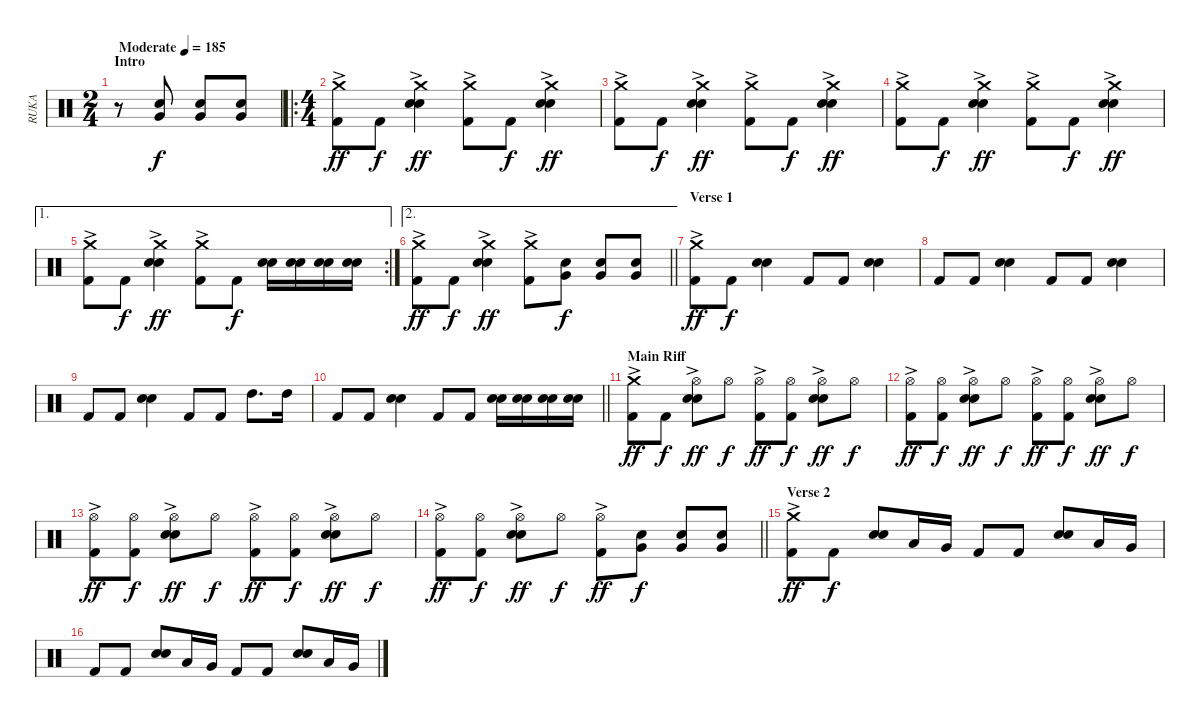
\track ("RUKA" "RUKA") {instrument percussion}
\staff {score}
\articulation defaults
\ts (2 4)
\section ("" "Intro")
\tempo (185 "Moderate")
\clef neutral
\ks c
r.8{dy f} ("Very Low Tom (hit)" "Snare (hit) 2").8 ("Very Low Tom (hit)" "Snare (hit) 2").8 ("Very Low Tom (hit)" "Snare (hit) 2").8 |
\ro
\ts (4 4)
("Crash medium (hit)"{ac} "Kick (hit) 2").8{dy ff} "Kick (hit) 2".8{dy f} ("Crash medium (hit)"{ac} "Snare (hit) 2" "Electric Snare (hit)").4{dy ff} ("Crash medium (hit)"{ac} "Kick (hit) 2").8 "Kick (hit) 2".8{dy f} ("Crash medium (hit)"{ac} "Snare (hit) 2" "Electric Snare (hit)").4{dy ff} |
("Crash medium (hit)"{ac} "Kick (hit) 2").8 "Kick (hit) 2".8{dy f} ("Crash medium (hit)"{ac} "Snare (hit) 2" "Electric Snare (hit)").4{dy ff} ("Crash medium (hit)"{ac} "Kick (hit) 2").8 "Kick (hit) 2".8{dy f} ("Crash medium (hit)"{ac} "Snare (hit) 2" "Electric Snare (hit)").4{dy ff} |
("Crash medium (hit)"{ac} "Kick (hit) 2").8 "Kick (hit) 2".8{dy f} ("Crash medium (hit)"{ac} "Snare (hit) 2" "Electric Snare (hit)").4{dy ff} ("Crash medium (hit)"{ac} "Kick (hit) 2").8 "Kick (hit) 2".8{dy f} ("Crash medium (hit)"{ac} "Snare (hit) 2" "Electric Snare (hit)").4{dy ff} |
\ae 1
\rc 2
("Crash medium (hit)"{ac} "Kick (hit) 2").8 "Kick (hit) 2".8{dy f} ("Crash medium (hit)"{ac} "Snare (hit) 2" "Electric Snare (hit)").4{dy ff} ("Crash medium (hit)"{ac} "Kick (hit) 2").8 "Kick (hit) 2".8{dy f} ("Snare (hit) 2" "Electric Snare (hit)").16 ("Snare (hit) 2" "Electric Snare (hit)").16 ("Snare (hit) 2" "Electric Snare (hit)").16 ("Snare (hit) 2" "Electric Snare (hit)").16 |
\ae 2
\barLineRight lightlight
("Crash medium (hit)"{ac} "Kick (hit) 2").8{dy ff} "Kick (hit) 2".8{dy f} ("Crash medium (hit)"{ac} "Snare (hit) 2" "Electric Snare (hit)").4{dy ff} ("Crash medium (hit)"{ac} "Kick (hit) 2").8 ("Very Low Tom (hit)" "Snare (hit) 2").8{dy f} ("Very Low Tom (hit)" "Snare (hit) 2").8 ("Very Low Tom (hit)" "Snare (hit) 2").8 |
\section ("" "Verse 1")
("Crash medium (hit)"{ac} "Kick (hit) 2").8{dy ff} "Kick (hit) 2".8{dy f} ("Electric Snare (hit)" "Snare (hit) 2").4 "Kick (hit) 2".8 "Kick (hit) 2".8 ("Electric Snare (hit)" "Snare (hit) 2").4 |
"Kick (hit) 2".8 "Kick (hit) 2".8 ("Electric Snare (hit)" "Snare (hit) 2").4 "Kick (hit) 2".8 "Kick (hit) 2".8 ("Electric Snare (hit)" "Snare (hit) 2").4 |
"Kick (hit) 2".8 "Kick (hit) 2".8 ("Electric Snare (hit)" "Snare (hit) 2").4 "Kick (hit) 2".8 "Kick (hit) 2".8 "High Tom (hit)".8{d} "High Tom (hit)".16 |
\barLineRight lightlight "Kick (hit) 2".8 "Kick (hit) 2".8
("Electric Snare (hit)" "Snare (hit) 2").4 "Kick (hit) 2".8 "Kick (hit) 2".8 ("Electric Snare (hit)" "Snare (hit) 2").16 ("Electric Snare (hit)" "Snare (hit) 2").16 ("Electric Snare (hit)" "Snare (hit) 2").16 ("Electric Snare (hit)" "Snare (hit) 2").16 |
\section ("" "Main Riff")
("Crash medium (hit)"{ac} "Kick (hit) 2").8{dy ff} "Kick (hit) 2".8{dy f} ("Hi-Hat (open)"{ac} "Electric Snare (hit)" "Snare (hit) 2").8{dy ff} "Hi-Hat (open)".8{dy f} ("Hi-Hat (open)"{ac} "Kick (hit) 2").8{dy ff} ("Hi-Hat (open)" "Kick (hit) 2").8{dy f} ("Hi-Hat (open)"{ac} "Electric Snare (hit)" "Snare (hit) 2").8{dy ff} "Hi-Hat (open)".8{dy f} |
("Hi-Hat (open)"{ac} "Kick (hit) 2").8{dy ff} ("Hi-Hat (open)" "Kick (hit) 2").8{dy f} ("Hi-Hat (open)"{ac} "Electric Snare (hit)" "Snare (hit) 2").8{dy ff} "Hi-Hat (open)".8{dy f} ("Hi-Hat (open)"{ac} "Kick (hit) 2").8{dy ff} ("Hi-Hat (open)" "Kick (hit) 2").8{dy f} ("Hi-Hat (open)"{ac} "Electric Snare (hit)" "Snare (hit) 2").8{dy ff} "Hi-Hat (open)".8{dy f} |
("Hi-Hat (open)"{ac} "Kick (hit) 2").8{dy ff} ("Hi-Hat (open)" "Kick (hit) 2").8{dy f} ("Hi-Hat (open)"{ac} "Electric Snare (hit)" "Snare (hit) 2").8{dy ff} "Hi-Hat (open)".8{dy f} ("Hi-Hat (open)"{ac} "Kick (hit) 2").8{dy ff} ("Hi-Hat (open)" "Kick (hit) 2").8{dy f} ("Hi-Hat (open)"{ac} "Electric Snare (hit)" "Snare (hit) 2").8{dy ff} "Hi-Hat (open)".8{dy f} |
\barLineRight lightlight
("Hi-Hat (open)"{ac} "Kick (hit) 2").8{dy ff} ("Hi-Hat (open)" "Kick (hit) 2").8{dy f} ("Hi-Hat (open)"{ac} "Snare (hit) 2" "Electric Snare (hit)").8{dy ff} "Hi-Hat (open)".8{dy f} ("Hi-Hat (open)"{ac} "Kick (hit) 2").8{dy ff} ("Very Low Tom (hit)" "Snare (hit) 2").8{dy f} ("Very Low Tom (hit)" "Snare (hit) 2").8 ("Very Low Tom (hit)" "Snare (hit) 2").8 |
\section ("" "Verse 2")
("Crash medium (hit)"{ac} "Kick (hit) 2").8{dy ff} "Kick (hit) 2".8{dy f} ("Electric Snare (hit)" "Snare (hit) 2").8 "Low Tom (hit)".16 "Very Low Tom (hit)".16 "Kick (hit) 2".8 "Kick (hit) 2".8 ("Electric Snare (hit)" "Snare (hit) 2").8 "Low Tom (hit)".16 "Very Low Tom (hit)".16 |
"Kick (hit) 2".8 "Kick (hit) 2".8 ("Electric Snare (hit)" "Snare (hit) 2").8 "Low Tom (hit)".16 "Very Low Tom (hit)".16 "Kick (hit) 2".8 "Kick (hit) 2".8 ("Electric Snare (hit)" "Snare (hit) 2").8 "Low Tom (hit)".16 "Very Low Tom (hit)".16
